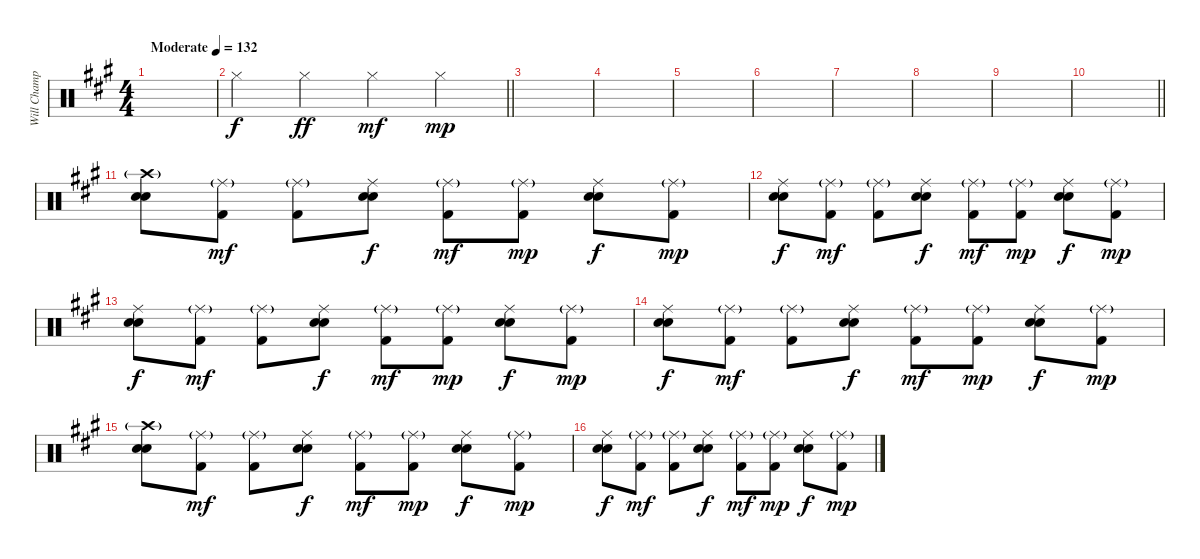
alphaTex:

\track ("Will Champion-Drums(percussion)" "Will Champ") {instrument percussion}
\staff {score}
\articulation defaults
\ts (4 4)
\tempo (132 "Moderate")
\clef neutral
\ks a
|
\barLineRight lightlight "Hi-Hat (closed)".4 "Hi-Hat (closed)".4{dy ff} "Hi-Hat (closed)".4{dy mf} "Hi-Hat (closed)".4{dy mp}
|
|
|
|
|
|
|
|
\barLineRight lightlight
|
("Crash high (hit)"{g} "Electric Snare (hit)" "Snare (hit) 2").8 ("Ride (middle)"{g} "Kick (hit) 2").8{dy mf} ("Ride (middle)"{g} "Kick (hit) 2").8 ("Ride (middle)" "Electric Snare (hit)" "Snare (hit) 2").8{dy f} ("Ride (middle)"{g} "Kick (hit) 2").8{dy mf} ("Ride (middle)"{g} "Kick (hit) 2").8{dy mp} ("Ride (middle)" "Electric Snare (hit)" "Snare (hit) 2").8{dy f} ("Ride (middle)"{g} "Kick (hit) 2").8{dy mp} |
("Ride (middle)" "Electric Snare (hit)" "Snare (hit) 2").8{dy f} ("Ride (middle)"{g} "Kick (hit) 2").8{dy mf} ("Ride (middle)"{g} "Kick (hit) 2").8 ("Ride (middle)" "Electric Snare (hit)" "Snare (hit) 2").8{dy f} ("Ride (middle)"{g} "Kick (hit) 2").8{dy mf} ("Ride (middle)"{g} "Kick (hit) 2").8{dy mp} ("Ride (middle)" "Electric Snare (hit)" "Snare (hit) 2").8{dy f} ("Ride (middle)"{g} "Kick (hit) 2").8{dy mp} |
("Ride (middle)" "Electric Snare (hit)" "Snare (hit) 2").8{dy f} ("Ride (middle)"{g} "Kick (hit) 2").8{dy mf} ("Ride (middle)"{g} "Kick (hit) 2").8 ("Ride (middle)" "Electric Snare (hit)" "Snare (hit) 2").8{dy f} ("Ride (middle)"{g} "Kick (hit) 2").8{dy mf} ("Ride (middle)"{g} "Kick (hit) 2").8{dy mp} ("Ride (middle)" "Electric Snare (hit)" "Snare (hit) 2").8{dy f} ("Ride (middle)"{g} "Kick (hit) 2").8{dy mp} |
("Ride (middle)" "Electric Snare (hit)" "Snare (hit) 2").8{dy f} ("Ride (middle)"{g} "Kick (hit) 2").8{dy mf} ("Ride (middle)"{g} "Kick (hit) 2").8 ("Ride (middle)" "Electric Snare (hit)" "Snare (hit) 2").8{dy f} ("Ride (middle)"{g} "Kick (hit) 2").8{dy mf} ("Ride (middle)"{g} "Kick (hit) 2").8{dy mp} ("Ride (middle)" "Electric Snare (hit)" "Snare (hit) 2").8{dy f} ("Ride (middle)"{g} "Kick (hit) 2").8{dy mp} |
("Crash high (hit)"{g} "Electric Snare (hit)" "Snare (hit) 2").8 ("Ride (middle)"{g} "Kick (hit) 2").8{dy mf} ("Ride (middle)"{g} "Kick (hit) 2").8 ("Ride (middle)" "Electric Snare (hit)" "Snare (hit) 2").8{dy f} ("Ride (middle)"{g} "Kick (hit) 2").8{dy mf} ("Ride (middle)"{g} "Kick (hit) 2").8{dy mp} ("Ride (middle)" "Electric Snare (hit)" "Snare (hit) 2").8{dy f} ("Ride (middle)"{g} "Kick (hit) 2").8{dy mp} |
("Ride (middle)" "Electric Snare (hit)" "Snare (hit) 2").8{dy f} ("Ride (middle)"{g} "Kick (hit) 2").8{dy mf} ("Ride (middle)"{g} "Kick (hit) 2").8 ("Ride (middle)" "Electric Snare (hit)" "Snare (hit) 2").8{dy f} ("Ride (middle)"{g} "Kick (hit) 2").8{dy mf} ("Ride (middle)"{g} "Kick (hit) 2").8{dy mp} ("Ride (middle)" "Electric Snare (hit)" "Snare (hit) 2").8{dy f} ("Ride (middle)"{g} "Kick (hit) 2").8{dy mp}
